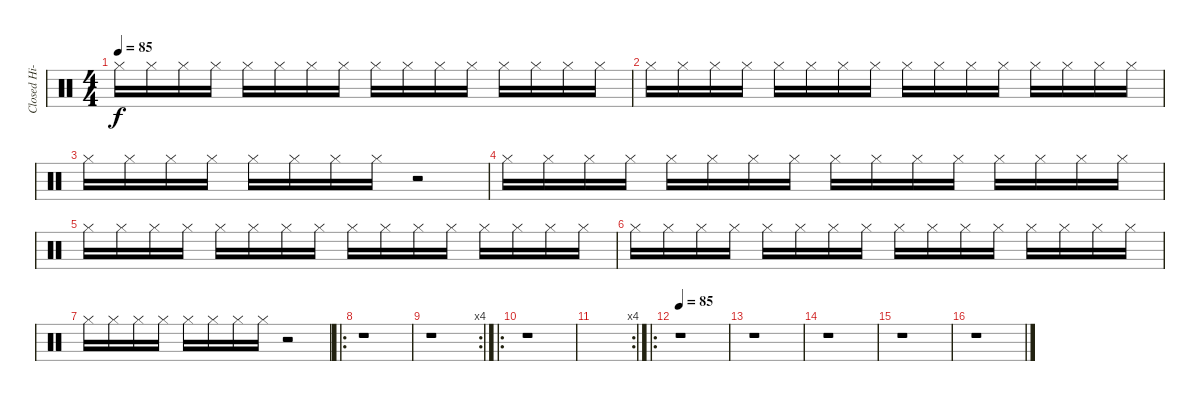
\track ("Closed Hi-Hats" "Closed Hi-") {instrument percussion}
\staff {score}
\articulation defaults
\ts (4 4)
\tempo 85
\clef neutral
\ks c "Hi-Hat (closed)".16{dy f} "Hi-Hat (closed)".16 "Hi-Hat (closed)".16 "Hi-Hat (closed)".16 "Hi-Hat (closed)".16 "Hi-Hat (closed)".16 "Hi-Hat (closed)".16 "Hi-Hat (closed)".16 "Hi-Hat (closed)".16 "Hi-Hat (closed)".16 "Hi-Hat (closed)".16 "Hi-Hat (closed)".16 "Hi-Hat (closed)".16 "Hi-Hat (closed)".16 "Hi-Hat (closed)".16 "Hi-Hat (closed)".16
|
"Hi-Hat (closed)".16 "Hi-Hat (closed)".16 "Hi-Hat (closed)".16 "Hi-Hat (closed)".16 "Hi-Hat (closed)".16 "Hi-Hat (closed)".16 "Hi-Hat (closed)".16 "Hi-Hat (closed)".16 "Hi-Hat (closed)".16 "Hi-Hat (closed)".16 "Hi-Hat (closed)".16 "Hi-Hat (closed)".16 "Hi-Hat (closed)".16 "Hi-Hat (closed)".16 "Hi-Hat (closed)".16 "Hi-Hat (closed)".16 |
"Hi-Hat (closed)".16 "Hi-Hat (closed)".16 "Hi-Hat (closed)".16 "Hi-Hat (closed)".16 "Hi-Hat (closed)".16 "Hi-Hat (closed)".16 "Hi-Hat (closed)".16 "Hi-Hat (closed)".16 r.2 |
"Hi-Hat (closed)".16 "Hi-Hat (closed)".16 "Hi-Hat (closed)".16 "Hi-Hat (closed)".16 "Hi-Hat (closed)".16 "Hi-Hat (closed)".16 "Hi-Hat (closed)".16 "Hi-Hat (closed)".16 "Hi-Hat (closed)".16 "Hi-Hat (closed)".16 "Hi-Hat (closed)".16 "Hi-Hat (closed)".16 "Hi-Hat (closed)".16 "Hi-Hat (closed)".16 "Hi-Hat (closed)".16 "Hi-Hat (closed)".16 |
"Hi-Hat (closed)".16 "Hi-Hat (closed)".16 "Hi-Hat (closed)".16 "Hi-Hat (closed)".16 "Hi-Hat (closed)".16 "Hi-Hat (closed)".16 "Hi-Hat (closed)".16 "Hi-Hat (closed)".16 "Hi-Hat (closed)".16 "Hi-Hat (closed)".16 "Hi-Hat (closed)".16 "Hi-Hat (closed)".16 "Hi-Hat (closed)".16 "Hi-Hat (closed)".16 "Hi-Hat (closed)".16 "Hi-Hat (closed)".16 |
"Hi-Hat (closed)".16 "Hi-Hat (closed)".16 "Hi-Hat (closed)".16 "Hi-Hat (closed)".16 "Hi-Hat (closed)".16 "Hi-Hat (closed)".16 "Hi-Hat (closed)".16 "Hi-Hat (closed)".16 "Hi-Hat (closed)".16 "Hi-Hat (closed)".16 "Hi-Hat (closed)".16 "Hi-Hat (closed)".16 "Hi-Hat (closed)".16 "Hi-Hat (closed)".16 "Hi-Hat (closed)".16 "Hi-Hat (closed)".16 |
"Hi-Hat (closed)".16 "Hi-Hat (closed)".16 "Hi-Hat (closed)".16 "Hi-Hat (closed)".16 "Hi-Hat (closed)".16 "Hi-Hat (closed)".16 "Hi-Hat (closed)".16 "Hi-Hat (closed)".16 r.2 |
\ro
r.1 |
\rc 4
r.1 |
\ro
r.1 |
\rc 4
|
\ro
\tempo 85
r.1 |
r.1 |
r.1 |
r.1 |
r.1
